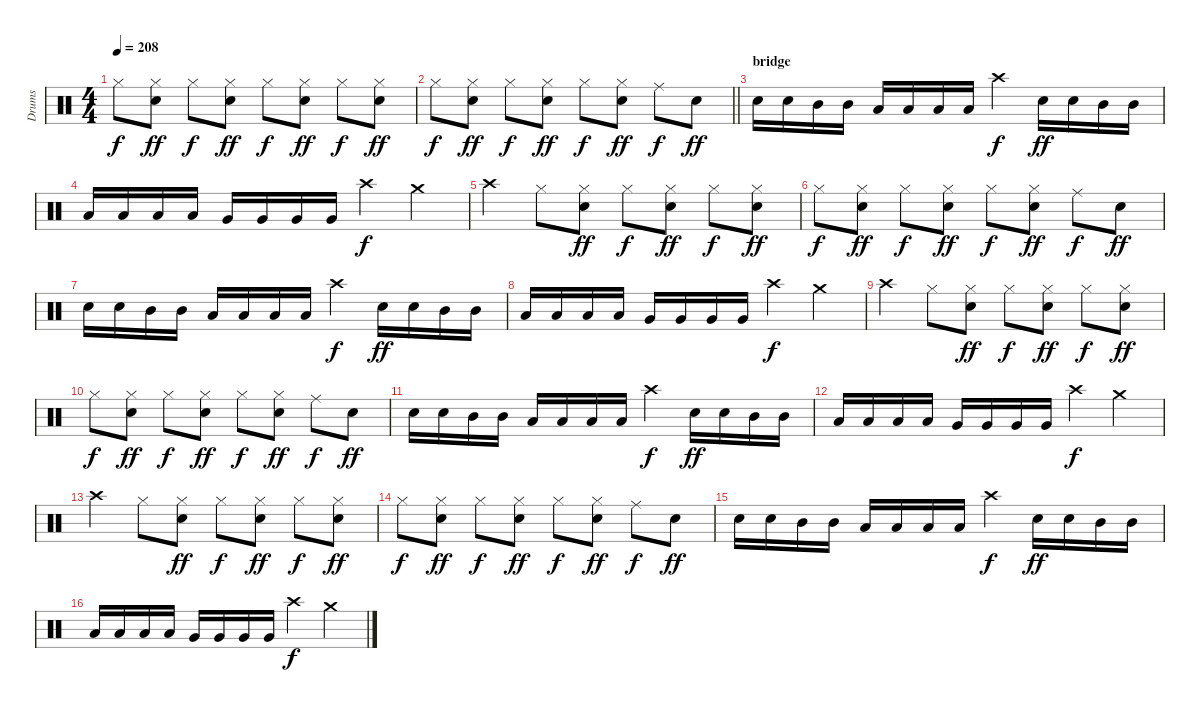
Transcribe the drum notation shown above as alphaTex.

\track ("Drums" "Drums") {instrument percussion}
\staff {score}
\articulation defaults
\ts (4 4)
\tempo 208
\clef neutral
\ks c "Hi-Hat (closed)".8{dy f}
("Hi-Hat (closed)" "Snare (hit) 2").8{dy ff} "Hi-Hat (closed)".8{dy f} ("Hi-Hat (closed)" "Snare (hit) 2").8{dy ff} "Hi-Hat (closed)".8{dy f} ("Hi-Hat (closed)" "Snare (hit) 2").8{dy ff} "Hi-Hat (closed)".8{dy f} ("Hi-Hat (closed)" "Snare (hit) 2").8{dy ff} |
\barLineRight lightlight "Hi-Hat (closed)".8{dy f}
("Hi-Hat (closed)" "Snare (hit) 2").8{dy ff} "Hi-Hat (closed)".8{dy f} ("Hi-Hat (closed)" "Snare (hit) 2").8{dy ff} "Hi-Hat (closed)".8{dy f} ("Hi-Hat (closed)" "Snare (hit) 2").8{dy ff} "Ride (middle)".8{dy f} "Snare (hit) 2".8{dy ff} |
\section ("" "bridge")
"Snare (hit) 2".16 "Snare (hit) 2".16 "Mid Tom (hit)".16 "Mid Tom (hit)".16 "Low Tom (hit)".16 "Low Tom (hit)".16 "Low Tom (hit)".16 "Low Tom (hit)".16 "Crash high (hit)".4{dy f} "Snare (hit) 2".16{dy ff} "Snare (hit) 2".16 "Mid Tom (hit)".16 "Mid Tom (hit)".16 |
"Low Tom (hit)".16 "Low Tom (hit)".16 "Low Tom (hit)".16 "Low Tom (hit)".16 "Very Low Tom (hit)".16 "Very Low Tom (hit)".16 "Very Low Tom (hit)".16 "Very Low Tom (hit)".16 "Crash high (hit)".4{dy f} "Crash medium (hit)".4 |
"Crash high (hit)".4 "Hi-Hat (closed)".8 ("Hi-Hat (closed)" "Snare (hit) 2").8{dy ff} "Hi-Hat (closed)".8{dy f} ("Hi-Hat (closed)" "Snare (hit) 2").8{dy ff} "Hi-Hat (closed)".8{dy f} ("Hi-Hat (closed)" "Snare (hit) 2").8{dy ff} |
"Hi-Hat (closed)".8{dy f} ("Hi-Hat (closed)" "Snare (hit) 2").8{dy ff} "Hi-Hat (closed)".8{dy f} ("Hi-Hat (closed)" "Snare (hit) 2").8{dy ff} "Hi-Hat (closed)".8{dy f} ("Hi-Hat (closed)" "Snare (hit) 2").8{dy ff} "Ride (middle)".8{dy f} "Snare (hit) 2".8{dy ff} |
"Snare (hit) 2".16 "Snare (hit) 2".16 "Mid Tom (hit)".16 "Mid Tom (hit)".16 "Low Tom (hit)".16 "Low Tom (hit)".16 "Low Tom (hit)".16 "Low Tom (hit)".16 "Crash high (hit)".4{dy f} "Snare (hit) 2".16{dy ff} "Snare (hit) 2".16 "Mid Tom (hit)".16 "Mid Tom (hit)".16 |
"Low Tom (hit)".16 "Low Tom (hit)".16 "Low Tom (hit)".16 "Low Tom (hit)".16 "Very Low Tom (hit)".16 "Very Low Tom (hit)".16 "Very Low Tom (hit)".16 "Very Low Tom (hit)".16 "Crash high (hit)".4{dy f} "Crash medium (hit)".4 |
"Crash high (hit)".4 "Hi-Hat (closed)".8 ("Hi-Hat (closed)" "Snare (hit) 2").8{dy ff} "Hi-Hat (closed)".8{dy f} ("Hi-Hat (closed)" "Snare (hit) 2").8{dy ff} "Hi-Hat (closed)".8{dy f} ("Hi-Hat (closed)" "Snare (hit) 2").8{dy ff} |
"Hi-Hat (closed)".8{dy f} ("Hi-Hat (closed)" "Snare (hit) 2").8{dy ff} "Hi-Hat (closed)".8{dy f} ("Hi-Hat (closed)" "Snare (hit) 2").8{dy ff} "Hi-Hat (closed)".8{dy f} ("Hi-Hat (closed)" "Snare (hit) 2").8{dy ff} "Ride (middle)".8{dy f} "Snare (hit) 2".8{dy ff} |
"Snare (hit) 2".16 "Snare (hit) 2".16 "Mid Tom (hit)".16 "Mid Tom (hit)".16 "Low Tom (hit)".16 "Low Tom (hit)".16 "Low Tom (hit)".16 "Low Tom (hit)".16 "Crash high (hit)".4{dy f} "Snare (hit) 2".16{dy ff} "Snare (hit) 2".16 "Mid Tom (hit)".16 "Mid Tom (hit)".16 |
"Low Tom (hit)".16 "Low Tom (hit)".16 "Low Tom (hit)".16 "Low Tom (hit)".16 "Very Low Tom (hit)".16 "Very Low Tom (hit)".16 "Very Low Tom (hit)".16 "Very Low Tom (hit)".16 "Crash high (hit)".4{dy f} "Crash medium (hit)".4 |
"Crash high (hit)".4 "Hi-Hat (closed)".8 ("Hi-Hat (closed)" "Snare (hit) 2").8{dy ff} "Hi-Hat (closed)".8{dy f} ("Hi-Hat (closed)" "Snare (hit) 2").8{dy ff} "Hi-Hat (closed)".8{dy f} ("Hi-Hat (closed)" "Snare (hit) 2").8{dy ff} |
"Hi-Hat (closed)".8{dy f} ("Hi-Hat (closed)" "Snare (hit) 2").8{dy ff} "Hi-Hat (closed)".8{dy f} ("Hi-Hat (closed)" "Snare (hit) 2").8{dy ff} "Hi-Hat (closed)".8{dy f} ("Hi-Hat (closed)" "Snare (hit) 2").8{dy ff} "Ride (middle)".8{dy f} "Snare (hit) 2".8{dy ff} |
"Snare (hit) 2".16 "Snare (hit) 2".16 "Mid Tom (hit)".16 "Mid Tom (hit)".16 "Low Tom (hit)".16 "Low Tom (hit)".16 "Low Tom (hit)".16 "Low Tom (hit)".16 "Crash high (hit)".4{dy f} "Snare (hit) 2".16{dy ff} "Snare (hit) 2".16 "Mid Tom (hit)".16 "Mid Tom (hit)".16 |
"Low Tom (hit)".16 "Low Tom (hit)".16 "Low Tom (hit)".16 "Low Tom (hit)".16 "Very Low Tom (hit)".16 "Very Low Tom (hit)".16 "Very Low Tom (hit)".16 "Very Low Tom (hit)".16 "Crash high (hit)".4{dy f} "Crash medium (hit)".4
